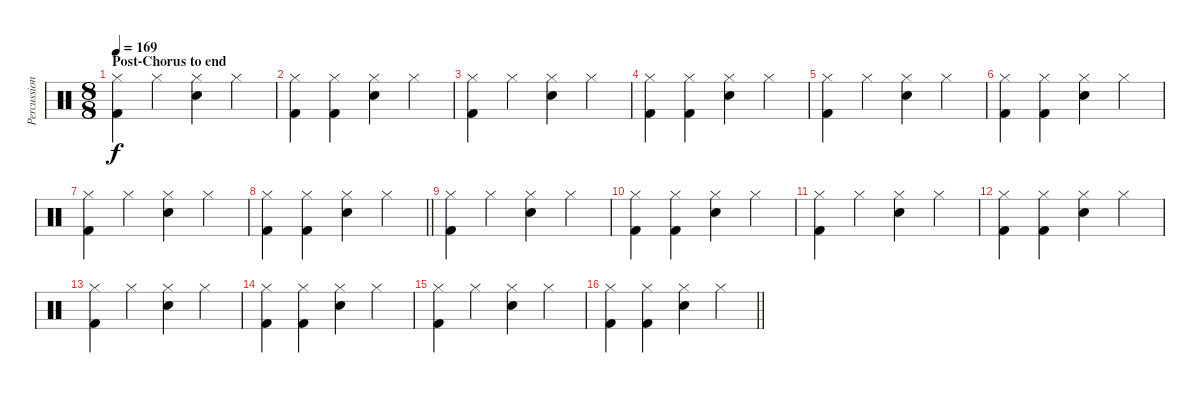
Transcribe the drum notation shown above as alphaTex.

\track ("Percussion" "Percussion") {instrument percussion}
\staff {score}
\articulation defaults
\ts (8 8)
\section ("" "Post-Chorus to end")
\tempo 169
\clef neutral
\ks c
("Hi-Hat (closed)" "Kick (hit) 2").4{dy f} "Hi-Hat (closed)".4 ("Hi-Hat (closed)" "Snare (hit) 2").4 "Hi-Hat (closed)".4 |
("Hi-Hat (closed)" "Kick (hit) 2").4 ("Hi-Hat (closed)" "Kick (hit) 2").4 ("Hi-Hat (closed)" "Snare (hit) 2").4 "Hi-Hat (closed)".4 |
("Hi-Hat (closed)" "Kick (hit) 2").4 "Hi-Hat (closed)".4 ("Hi-Hat (closed)" "Snare (hit) 2").4 "Hi-Hat (closed)".4 |
("Hi-Hat (closed)" "Kick (hit) 2").4 ("Hi-Hat (closed)" "Kick (hit) 2").4 ("Hi-Hat (closed)" "Snare (hit) 2").4 "Hi-Hat (closed)".4 |
("Hi-Hat (closed)" "Kick (hit) 2").4 "Hi-Hat (closed)".4 ("Hi-Hat (closed)" "Snare (hit) 2").4 "Hi-Hat (closed)".4 |
("Hi-Hat (closed)" "Kick (hit) 2").4 ("Hi-Hat (closed)" "Kick (hit) 2").4 ("Hi-Hat (closed)" "Snare (hit) 2").4 "Hi-Hat (closed)".4 |
("Hi-Hat (closed)" "Kick (hit) 2").4 "Hi-Hat (closed)".4 ("Hi-Hat (closed)" "Snare (hit) 2").4 "Hi-Hat (closed)".4 |
\barLineRight lightlight
("Hi-Hat (closed)" "Kick (hit) 2").4 ("Hi-Hat (closed)" "Kick (hit) 2").4 ("Hi-Hat (closed)" "Snare (hit) 2").4 "Hi-Hat (closed)".4 |
("Hi-Hat (closed)" "Kick (hit) 2").4 "Hi-Hat (closed)".4 ("Hi-Hat (closed)" "Snare (hit) 2").4 "Hi-Hat (closed)".4 |
("Hi-Hat (closed)" "Kick (hit) 2").4 ("Hi-Hat (closed)" "Kick (hit) 2").4 ("Hi-Hat (closed)" "Snare (hit) 2").4 "Hi-Hat (closed)".4 |
("Hi-Hat (closed)" "Kick (hit) 2").4 "Hi-Hat (closed)".4 ("Hi-Hat (closed)" "Snare (hit) 2").4 "Hi-Hat (closed)".4 |
("Hi-Hat (closed)" "Kick (hit) 2").4 ("Hi-Hat (closed)" "Kick (hit) 2").4 ("Hi-Hat (closed)" "Snare (hit) 2").4 "Hi-Hat (closed)".4 |
("Hi-Hat (closed)" "Kick (hit) 2").4 "Hi-Hat (closed)".4 ("Hi-Hat (closed)" "Snare (hit) 2").4 "Hi-Hat (closed)".4 |
("Hi-Hat (closed)" "Kick (hit) 2").4 ("Hi-Hat (closed)" "Kick (hit) 2").4 ("Hi-Hat (closed)" "Snare (hit) 2").4 "Hi-Hat (closed)".4 |
("Hi-Hat (closed)" "Kick (hit) 2").4 "Hi-Hat (closed)".4 ("Hi-Hat (closed)" "Snare (hit) 2").4 "Hi-Hat (closed)".4 |
\barLineRight lightlight
("Hi-Hat (closed)" "Kick (hit) 2").4 ("Hi-Hat (closed)" "Kick (hit) 2").4 ("Hi-Hat (closed)" "Snare (hit) 2").4 "Hi-Hat (closed)".4
